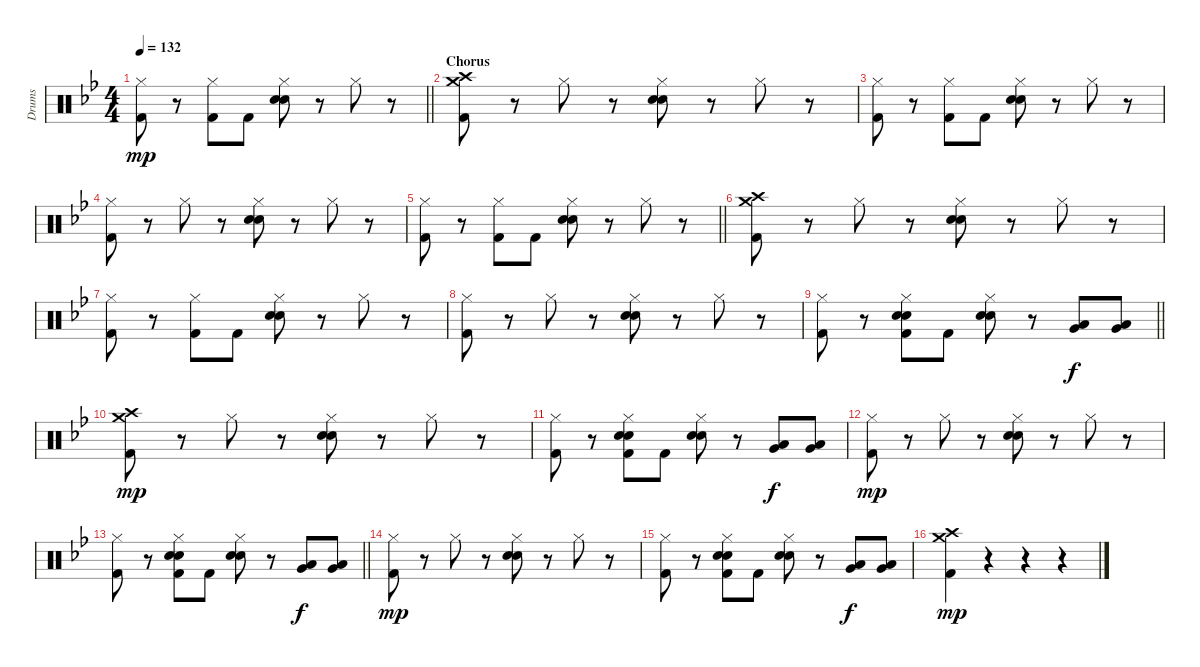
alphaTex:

\track ("Drums" "Drums") {instrument percussion}
\staff
\articulation defaults
\ts (4 4)
\tempo 132
\clef neutral
\barLineRight lightlight
\ks bb
("Hi-Hat (closed)" "Kick (hit) 2").8{dy mp} r.8 ("Hi-Hat (closed)" "Kick (hit) 2").8 "Kick (hit) 2".8 ("Hi-Hat (closed)" "Electric Snare (hit)" "Electric Snare (hit)").8 r.8 "Hi-Hat (closed)".8 r.8 |
\section ("" "Chorus")
("Crash high (hit)" "Crash medium (hit)" "Kick (hit) 2").8 r.8 "Hi-Hat (closed)".8 r.8 ("Hi-Hat (closed)" "Electric Snare (hit)" "Electric Snare (hit)").8 r.8 "Hi-Hat (closed)".8 r.8 |
("Hi-Hat (closed)" "Kick (hit) 2").8 r.8 ("Hi-Hat (closed)" "Kick (hit) 2").8 "Kick (hit) 2".8 ("Hi-Hat (closed)" "Electric Snare (hit)" "Electric Snare (hit)").8 r.8 "Hi-Hat (closed)".8 r.8 |
("Hi-Hat (closed)" "Kick (hit) 2").8 r.8 "Hi-Hat (closed)".8 r.8 ("Hi-Hat (closed)" "Electric Snare (hit)" "Electric Snare (hit)").8 r.8 "Hi-Hat (closed)".8 r.8 |
\barLineRight lightlight
("Hi-Hat (closed)" "Kick (hit) 2").8 r.8 ("Hi-Hat (closed)" "Kick (hit) 2").8 "Kick (hit) 2".8 ("Hi-Hat (closed)" "Electric Snare (hit)" "Electric Snare (hit)").8 r.8 "Hi-Hat (closed)".8 r.8 |
("Crash high (hit)" "Crash medium (hit)" "Kick (hit) 2").8 r.8 "Hi-Hat (closed)".8 r.8 ("Hi-Hat (closed)" "Electric Snare (hit)" "Electric Snare (hit)").8 r.8 "Hi-Hat (closed)".8 r.8 |
("Hi-Hat (closed)" "Kick (hit) 2").8 r.8 ("Hi-Hat (closed)" "Kick (hit) 2").8 "Kick (hit) 2".8 ("Hi-Hat (closed)" "Electric Snare (hit)" "Electric Snare (hit)").8 r.8 "Hi-Hat (closed)".8 r.8 |
("Hi-Hat (closed)" "Kick (hit) 2").8 r.8 "Hi-Hat (closed)".8 r.8 ("Hi-Hat (closed)" "Electric Snare (hit)" "Electric Snare (hit)").8 r.8 "Hi-Hat (closed)".8 r.8 |
\barLineRight lightlight
("Hi-Hat (closed)" "Kick (hit) 2").8 r.8 ("Hi-Hat (closed)" "Electric Snare (hit)" "Electric Snare (hit)" "Kick (hit) 2").8 "Kick (hit) 2".8 ("Hi-Hat (closed)" "Electric Snare (hit)" "Electric Snare (hit)").8 r.8 ("Low Floor Tom (hit)" "Very Low Tom (hit)").8{dy f} ("Low Floor Tom (hit)" "Very Low Tom (hit)").8 |
("Crash high (hit)" "Crash medium (hit)" "Kick (hit) 2").8{dy mp} r.8 "Hi-Hat (closed)".8 r.8 ("Hi-Hat (closed)" "Electric Snare (hit)" "Electric Snare (hit)").8 r.8 "Hi-Hat (closed)".8 r.8 |
("Hi-Hat (closed)" "Kick (hit) 2").8 r.8 ("Hi-Hat (closed)" "Electric Snare (hit)" "Electric Snare (hit)" "Kick (hit) 2").8 "Kick (hit) 2".8 ("Hi-Hat (closed)" "Electric Snare (hit)" "Electric Snare (hit)").8 r.8 ("Low Floor Tom (hit)" "Very Low Tom (hit)").8{dy f} ("Low Floor Tom (hit)" "Very Low Tom (hit)").8 |
("Hi-Hat (closed)" "Kick (hit) 2").8{dy mp} r.8 "Hi-Hat (closed)".8 r.8 ("Hi-Hat (closed)" "Electric Snare (hit)" "Electric Snare (hit)").8 r.8 "Hi-Hat (closed)".8 r.8 |
\barLineRight lightlight
("Hi-Hat (closed)" "Kick (hit) 2").8 r.8 ("Hi-Hat (closed)" "Electric Snare (hit)" "Electric Snare (hit)" "Kick (hit) 2").8 "Kick (hit) 2".8 ("Hi-Hat (closed)" "Electric Snare (hit)" "Electric Snare (hit)").8 r.8 ("Low Floor Tom (hit)" "Very Low Tom (hit)").8{dy f} ("Low Floor Tom (hit)" "Very Low Tom (hit)").8 |
("Hi-Hat (closed)" "Kick (hit) 2").8{dy mp} r.8 "Hi-Hat (closed)".8 r.8 ("Hi-Hat (closed)" "Electric Snare (hit)" "Electric Snare (hit)").8 r.8 "Hi-Hat (closed)".8 r.8 |
("Hi-Hat (closed)" "Kick (hit) 2").8 r.8 ("Hi-Hat (closed)" "Electric Snare (hit)" "Electric Snare (hit)" "Kick (hit) 2").8 "Kick (hit) 2".8 ("Hi-Hat (closed)" "Electric Snare (hit)" "Electric Snare (hit)").8 r.8 ("Low Floor Tom (hit)" "Very Low Tom (hit)").8{dy f} ("Low Floor Tom (hit)" "Very Low Tom (hit)").8 |
("Crash high (hit)" "Crash medium (hit)" "Kick (hit) 2").4{dy mp} r.4 r.4 r.4
